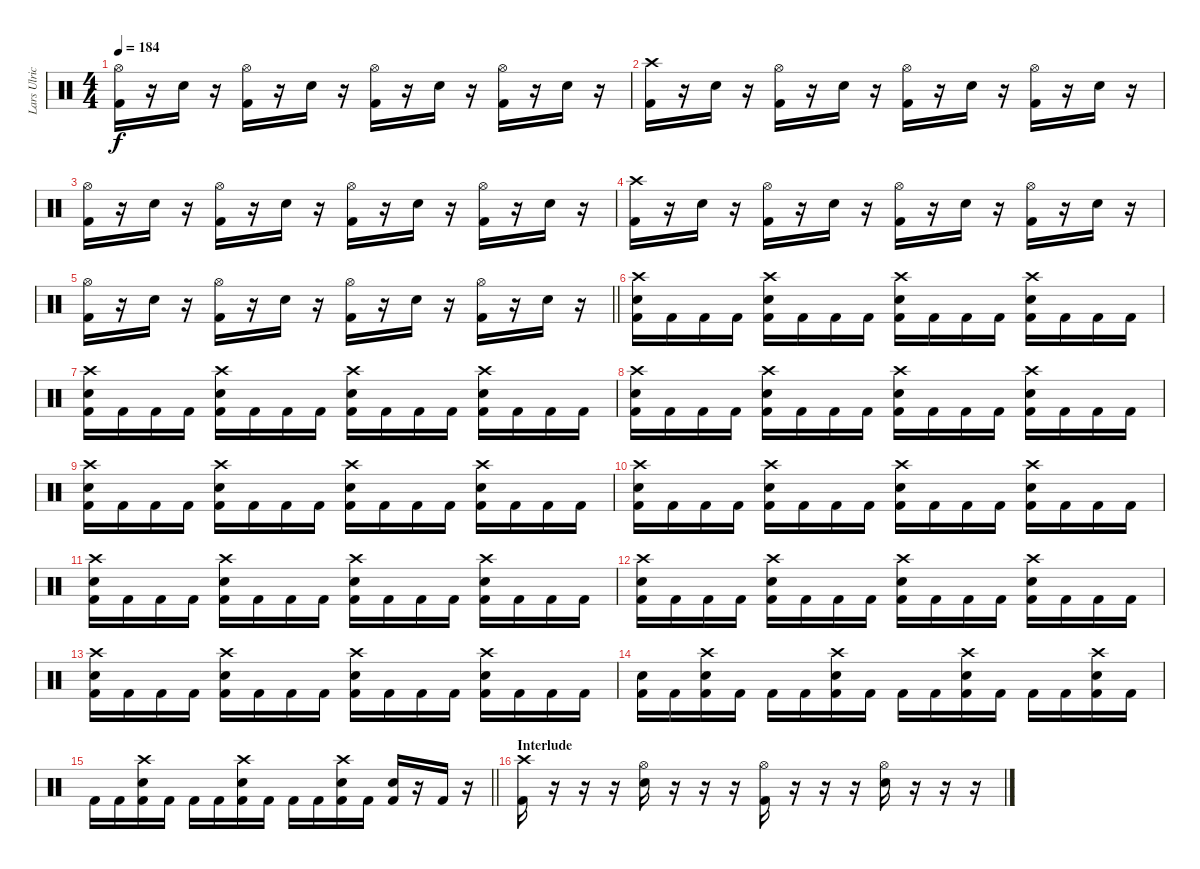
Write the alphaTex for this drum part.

\track ("Lars Ulrich" "Lars Ulric") {instrument percussion}
\staff {score}
\articulation defaults
\ts (4 4)
\tempo 184
\clef neutral
\ks c
("Hi-Hat (open)" "Kick (hit) 2").16{dy f} r.16 "Electric Snare (hit)".16 r.16 ("Hi-Hat (open)" "Kick (hit) 2").16 r.16 "Electric Snare (hit)".16 r.16 ("Hi-Hat (open)" "Kick (hit) 2").16 r.16 "Electric Snare (hit)".16 r.16 ("Hi-Hat (open)" "Kick (hit) 2").16 r.16 "Electric Snare (hit)".16 r.16 |
("Crash high (hit)" "Kick (hit) 2").16 r.16 "Electric Snare (hit)".16 r.16 ("Hi-Hat (open)" "Kick (hit) 2").16 r.16 "Electric Snare (hit)".16 r.16 ("Hi-Hat (open)" "Kick (hit) 2").16 r.16 "Electric Snare (hit)".16 r.16 ("Hi-Hat (open)" "Kick (hit) 2").16 r.16 "Electric Snare (hit)".16 r.16 |
("Hi-Hat (open)" "Kick (hit) 2").16 r.16 "Electric Snare (hit)".16 r.16 ("Hi-Hat (open)" "Kick (hit) 2").16 r.16 "Electric Snare (hit)".16 r.16 ("Hi-Hat (open)" "Kick (hit) 2").16 r.16 "Electric Snare (hit)".16 r.16 ("Hi-Hat (open)" "Kick (hit) 2").16 r.16 "Electric Snare (hit)".16 r.16 |
("Crash high (hit)" "Kick (hit) 2").16 r.16 "Electric Snare (hit)".16 r.16 ("Hi-Hat (open)" "Kick (hit) 2").16 r.16 "Electric Snare (hit)".16 r.16 ("Hi-Hat (open)" "Kick (hit) 2").16 r.16 "Electric Snare (hit)".16 r.16 ("Hi-Hat (open)" "Kick (hit) 2").16 r.16 "Electric Snare (hit)".16 r.16 |
\barLineRight lightlight
("Hi-Hat (open)" "Kick (hit) 2").16 r.16 "Electric Snare (hit)".16 r.16 ("Hi-Hat (open)" "Kick (hit) 2").16 r.16 "Electric Snare (hit)".16 r.16 ("Hi-Hat (open)" "Kick (hit) 2").16 r.16 "Electric Snare (hit)".16 r.16 ("Hi-Hat (open)" "Kick (hit) 2").16 r.16 "Electric Snare (hit)".16 r.16 |
\section ("" "")
("Crash high (hit)" "Electric Snare (hit)" "Kick (hit) 2").16 "Kick (hit) 2".16 "Kick (hit) 2".16 "Kick (hit) 2".16 ("Crash high (hit)" "Electric Snare (hit)" "Kick (hit) 2").16 "Kick (hit) 2".16 "Kick (hit) 2".16 "Kick (hit) 2".16 ("Crash high (hit)" "Electric Snare (hit)" "Kick (hit) 2").16 "Kick (hit) 2".16 "Kick (hit) 2".16 "Kick (hit) 2".16 ("Crash high (hit)" "Electric Snare (hit)" "Kick (hit) 2").16 "Kick (hit) 2".16 "Kick (hit) 2".16 "Kick (hit) 2".16 |
("Crash high (hit)" "Electric Snare (hit)" "Kick (hit) 2").16 "Kick (hit) 2".16 "Kick (hit) 2".16 "Kick (hit) 2".16 ("Crash high (hit)" "Electric Snare (hit)" "Kick (hit) 2").16 "Kick (hit) 2".16 "Kick (hit) 2".16 "Kick (hit) 2".16 ("Crash high (hit)" "Electric Snare (hit)" "Kick (hit) 2").16 "Kick (hit) 2".16 "Kick (hit) 2".16 "Kick (hit) 2".16 ("Crash high (hit)" "Electric Snare (hit)" "Kick (hit) 2").16 "Kick (hit) 2".16 "Kick (hit) 2".16 "Kick (hit) 2".16 |
("Crash high (hit)" "Electric Snare (hit)" "Kick (hit) 2").16 "Kick (hit) 2".16 "Kick (hit) 2".16 "Kick (hit) 2".16 ("Crash high (hit)" "Electric Snare (hit)" "Kick (hit) 2").16 "Kick (hit) 2".16 "Kick (hit) 2".16 "Kick (hit) 2".16 ("Crash high (hit)" "Electric Snare (hit)" "Kick (hit) 2").16 "Kick (hit) 2".16 "Kick (hit) 2".16 "Kick (hit) 2".16 ("Crash high (hit)" "Electric Snare (hit)" "Kick (hit) 2").16 "Kick (hit) 2".16 "Kick (hit) 2".16 "Kick (hit) 2".16 |
("Crash high (hit)" "Electric Snare (hit)" "Kick (hit) 2").16 "Kick (hit) 2".16 "Kick (hit) 2".16 "Kick (hit) 2".16 ("Crash high (hit)" "Electric Snare (hit)" "Kick (hit) 2").16 "Kick (hit) 2".16 "Kick (hit) 2".16 "Kick (hit) 2".16 ("Crash high (hit)" "Electric Snare (hit)" "Kick (hit) 2").16 "Kick (hit) 2".16 "Kick (hit) 2".16 "Kick (hit) 2".16 ("Crash high (hit)" "Electric Snare (hit)" "Kick (hit) 2").16 "Kick (hit) 2".16 "Kick (hit) 2".16 "Kick (hit) 2".16 |
("Crash high (hit)" "Electric Snare (hit)" "Kick (hit) 2").16 "Kick (hit) 2".16 "Kick (hit) 2".16 "Kick (hit) 2".16 ("Crash high (hit)" "Electric Snare (hit)" "Kick (hit) 2").16 "Kick (hit) 2".16 "Kick (hit) 2".16 "Kick (hit) 2".16 ("Crash high (hit)" "Electric Snare (hit)" "Kick (hit) 2").16 "Kick (hit) 2".16 "Kick (hit) 2".16 "Kick (hit) 2".16 ("Crash high (hit)" "Electric Snare (hit)" "Kick (hit) 2").16 "Kick (hit) 2".16 "Kick (hit) 2".16 "Kick (hit) 2".16 |
("Crash high (hit)" "Electric Snare (hit)" "Kick (hit) 2").16 "Kick (hit) 2".16 "Kick (hit) 2".16 "Kick (hit) 2".16 ("Crash high (hit)" "Electric Snare (hit)" "Kick (hit) 2").16 "Kick (hit) 2".16 "Kick (hit) 2".16 "Kick (hit) 2".16 ("Crash high (hit)" "Electric Snare (hit)" "Kick (hit) 2").16 "Kick (hit) 2".16 "Kick (hit) 2".16 "Kick (hit) 2".16 ("Crash high (hit)" "Electric Snare (hit)" "Kick (hit) 2").16 "Kick (hit) 2".16 "Kick (hit) 2".16 "Kick (hit) 2".16 |
("Crash high (hit)" "Electric Snare (hit)" "Kick (hit) 2").16 "Kick (hit) 2".16 "Kick (hit) 2".16 "Kick (hit) 2".16 ("Crash high (hit)" "Electric Snare (hit)" "Kick (hit) 2").16 "Kick (hit) 2".16 "Kick (hit) 2".16 "Kick (hit) 2".16 ("Crash high (hit)" "Electric Snare (hit)" "Kick (hit) 2").16 "Kick (hit) 2".16 "Kick (hit) 2".16 "Kick (hit) 2".16 ("Crash high (hit)" "Electric Snare (hit)" "Kick (hit) 2").16 "Kick (hit) 2".16 "Kick (hit) 2".16 "Kick (hit) 2".16 |
("Crash high (hit)" "Electric Snare (hit)" "Kick (hit) 2").16 "Kick (hit) 2".16 "Kick (hit) 2".16 "Kick (hit) 2".16 ("Crash high (hit)" "Electric Snare (hit)" "Kick (hit) 2").16 "Kick (hit) 2".16 "Kick (hit) 2".16 "Kick (hit) 2".16 ("Crash high (hit)" "Electric Snare (hit)" "Kick (hit) 2").16 "Kick (hit) 2".16 "Kick (hit) 2".16 "Kick (hit) 2".16 ("Crash high (hit)" "Electric Snare (hit)" "Kick (hit) 2").16 "Kick (hit) 2".16 "Kick (hit) 2".16 "Kick (hit) 2".16 |
("Electric Snare (hit)" "Kick (hit) 2").16 "Kick (hit) 2".16 ("Crash high (hit)" "Electric Snare (hit)" "Kick (hit) 2").16 "Kick (hit) 2".16 "Kick (hit) 2".16 "Kick (hit) 2".16 ("Crash high (hit)" "Electric Snare (hit)" "Kick (hit) 2").16 "Kick (hit) 2".16 "Kick (hit) 2".16 "Kick (hit) 2".16 ("Crash high (hit)" "Electric Snare (hit)" "Kick (hit) 2").16 "Kick (hit) 2".16 "Kick (hit) 2".16 "Kick (hit) 2".16 ("Crash high (hit)" "Electric Snare (hit)" "Kick (hit) 2").16 "Kick (hit) 2".16 |
\barLineRight lightlight "Kick (hit) 2".16 "Kick (hit) 2".16
("Crash high (hit)" "Electric Snare (hit)" "Kick (hit) 2").16 "Kick (hit) 2".16 "Kick (hit) 2".16 "Kick (hit) 2".16 ("Crash high (hit)" "Electric Snare (hit)" "Kick (hit) 2").16 "Kick (hit) 2".16 "Kick (hit) 2".16 "Kick (hit) 2".16 ("Crash high (hit)" "Electric Snare (hit)" "Kick (hit) 2").16 "Kick (hit) 2".16 ("Electric Snare (hit)" "Kick (hit) 2").16 r.16 "Kick (hit) 2".16 r.16 |
\section ("" "Interlude")
("Crash high (hit)" "Kick (hit) 2").16 r.16 r.16 r.16 ("Electric Snare (hit)" "Hi-Hat (open)").16 r.16 r.16 r.16 ("Hi-Hat (open)" "Kick (hit) 2").16 r.16 r.16 r.16 ("Electric Snare (hit)" "Hi-Hat (open)").16 r.16 r.16 r.16
